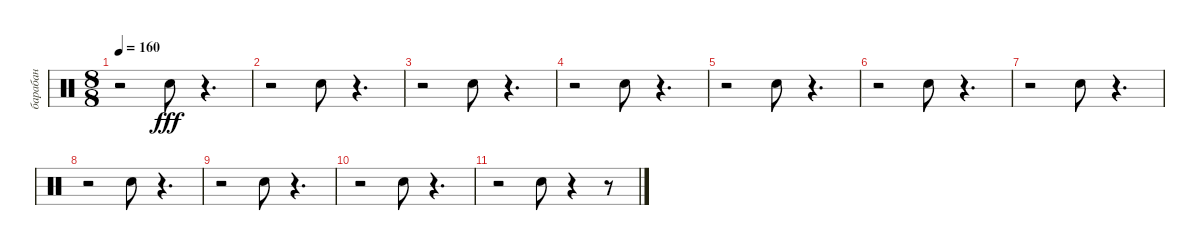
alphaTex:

\track ("барабан" "барабан") {instrument percussion}
\staff {score}
\articulation defaults
\ts (8 8)
\tempo 160
\clef neutral
\ks c
r.2{dy fff} "Snare (hit) 2".8{volume 15} r.4{d} |
r.2 "Snare (hit) 2".8{volume 14} r.4{d} |
r.2 "Snare (hit) 2".8{volume 13} r.4{d} |
r.2 "Snare (hit) 2".8{volume 11} r.4{d} |
r.2 "Snare (hit) 2".8{volume 10} r.4{d} |
r.2 "Snare (hit) 2".8{volume 9} r.4{d} |
r.2 "Snare (hit) 2".8{volume 7} r.4{d} |
r.2 "Snare (hit) 2".8{volume 5} r.4{d} |
r.2 "Snare (hit) 2".8{volume 3} r.4{d} |
r.2 "Snare (hit) 2".8{volume 2} r.4{d} |
r.2 "Snare (hit) 2".8{volume 0} r.4 r.8
